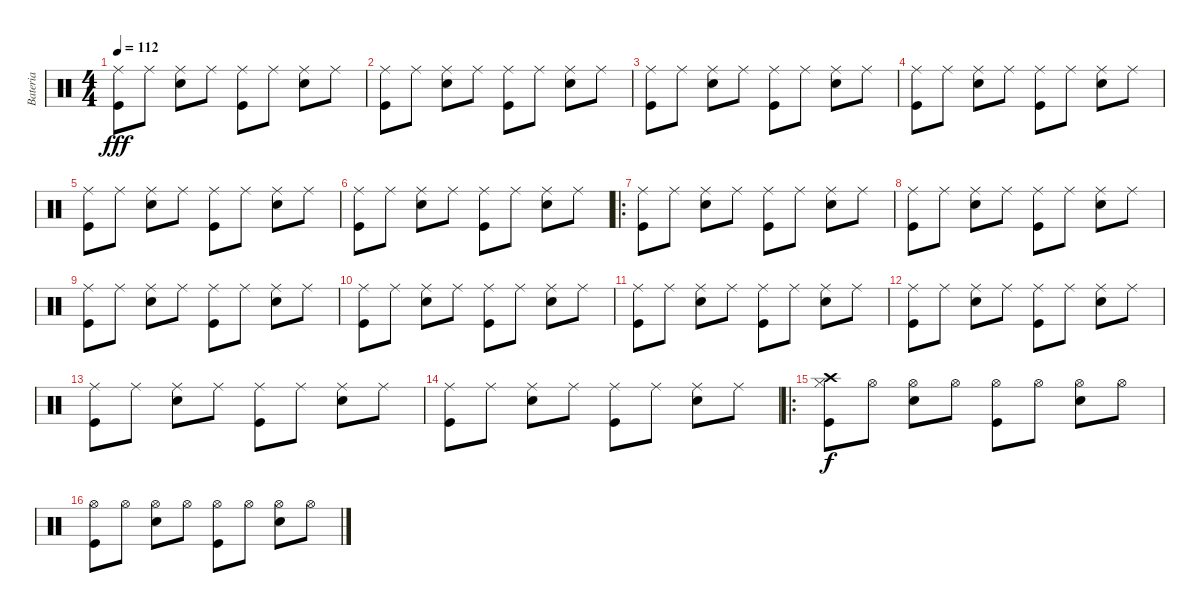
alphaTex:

\track ("Bateria" "Bateria") {instrument percussion}
\staff {score}
\articulation defaults
\ts (4 4)
\tempo 112
\clef neutral
\ks c
("Ride (middle)" "Kick (hit)").8{dy fff} "Ride (middle)".8 ("Ride (middle)" "Snare (hit) 2").8 "Ride (middle)".8 ("Ride (middle)" "Kick (hit)").8 "Ride (middle)".8 ("Ride (middle)" "Snare (hit) 2").8 "Ride (middle)".8 |
("Ride (middle)" "Kick (hit)").8 "Ride (middle)".8 ("Ride (middle)" "Snare (hit) 2").8 "Ride (middle)".8 ("Ride (middle)" "Kick (hit)").8 "Ride (middle)".8 ("Ride (middle)" "Snare (hit) 2").8 "Ride (middle)".8 |
("Ride (middle)" "Kick (hit)").8 "Ride (middle)".8 ("Ride (middle)" "Snare (hit) 2").8 "Ride (middle)".8 ("Ride (middle)" "Kick (hit)").8 "Ride (middle)".8 ("Ride (middle)" "Snare (hit) 2").8 "Ride (middle)".8 |
("Ride (middle)" "Kick (hit)").8 "Ride (middle)".8 ("Ride (middle)" "Snare (hit) 2").8 "Ride (middle)".8 ("Ride (middle)" "Kick (hit)").8 "Ride (middle)".8 ("Ride (middle)" "Snare (hit) 2").8 "Ride (middle)".8 |
("Ride (middle)" "Kick (hit)").8 "Ride (middle)".8 ("Ride (middle)" "Snare (hit) 2").8 "Ride (middle)".8 ("Ride (middle)" "Kick (hit)").8 "Ride (middle)".8 ("Ride (middle)" "Snare (hit) 2").8 "Ride (middle)".8 |
("Ride (middle)" "Kick (hit)").8 "Ride (middle)".8 ("Ride (middle)" "Snare (hit) 2").8 "Ride (middle)".8 ("Ride (middle)" "Kick (hit)").8 "Ride (middle)".8 ("Ride (middle)" "Snare (hit) 2").8 "Ride (middle)".8 |
\ro
("Ride (middle)" "Kick (hit)").8 "Ride (middle)".8 ("Ride (middle)" "Snare (hit) 2").8 "Ride (middle)".8 ("Ride (middle)" "Kick (hit)").8 "Ride (middle)".8 ("Ride (middle)" "Snare (hit) 2").8 "Ride (middle)".8 |
("Ride (middle)" "Kick (hit)").8 "Ride (middle)".8 ("Ride (middle)" "Snare (hit) 2").8 "Ride (middle)".8 ("Ride (middle)" "Kick (hit)").8 "Ride (middle)".8 ("Ride (middle)" "Snare (hit) 2").8 "Ride (middle)".8 |
("Ride (middle)" "Kick (hit)").8 "Ride (middle)".8 ("Ride (middle)" "Snare (hit) 2").8 "Ride (middle)".8 ("Ride (middle)" "Kick (hit)").8 "Ride (middle)".8 ("Ride (middle)" "Snare (hit) 2").8 "Ride (middle)".8 |
("Ride (middle)" "Kick (hit)").8 "Ride (middle)".8 ("Ride (middle)" "Snare (hit) 2").8 "Ride (middle)".8 ("Ride (middle)" "Kick (hit)").8 "Ride (middle)".8 ("Ride (middle)" "Snare (hit) 2").8 "Ride (middle)".8 |
("Ride (middle)" "Kick (hit)").8 "Ride (middle)".8 ("Ride (middle)" "Snare (hit) 2").8 "Ride (middle)".8 ("Ride (middle)" "Kick (hit)").8 "Ride (middle)".8 ("Ride (middle)" "Snare (hit) 2").8 "Ride (middle)".8 |
("Ride (middle)" "Kick (hit)").8 "Ride (middle)".8 ("Ride (middle)" "Snare (hit) 2").8 "Ride (middle)".8 ("Ride (middle)" "Kick (hit)").8 "Ride (middle)".8 ("Ride (middle)" "Snare (hit) 2").8 "Ride (middle)".8 |
("Ride (middle)" "Kick (hit)").8 "Ride (middle)".8 ("Ride (middle)" "Snare (hit) 2").8 "Ride (middle)".8 ("Ride (middle)" "Kick (hit)").8 "Ride (middle)".8 ("Ride (middle)" "Snare (hit) 2").8 "Ride (middle)".8 |
("Ride (middle)" "Kick (hit)").8 "Ride (middle)".8 ("Ride (middle)" "Snare (hit) 2").8 "Ride (middle)".8 ("Ride (middle)" "Kick (hit)").8 "Ride (middle)".8 ("Ride (middle)" "Snare (hit) 2").8 "Ride (middle)".8 |
\ro
("Crash high (hit)" "Kick (hit)" "Hi-Hat (closed)").8{dy f} "Hi-Hat (open)".8 ("Hi-Hat (open)" "Snare (hit) 2").8 "Hi-Hat (open)".8 ("Hi-Hat (open)" "Kick (hit)").8 "Hi-Hat (open)".8 ("Hi-Hat (open)" "Snare (hit) 2").8 "Hi-Hat (open)".8 |
("Hi-Hat (open)" "Kick (hit)").8 "Hi-Hat (open)".8 ("Hi-Hat (open)" "Snare (hit) 2").8 "Hi-Hat (open)".8 ("Hi-Hat (open)" "Kick (hit)").8 "Hi-Hat (open)".8 ("Hi-Hat (open)" "Snare (hit) 2").8 "Hi-Hat (open)".8
